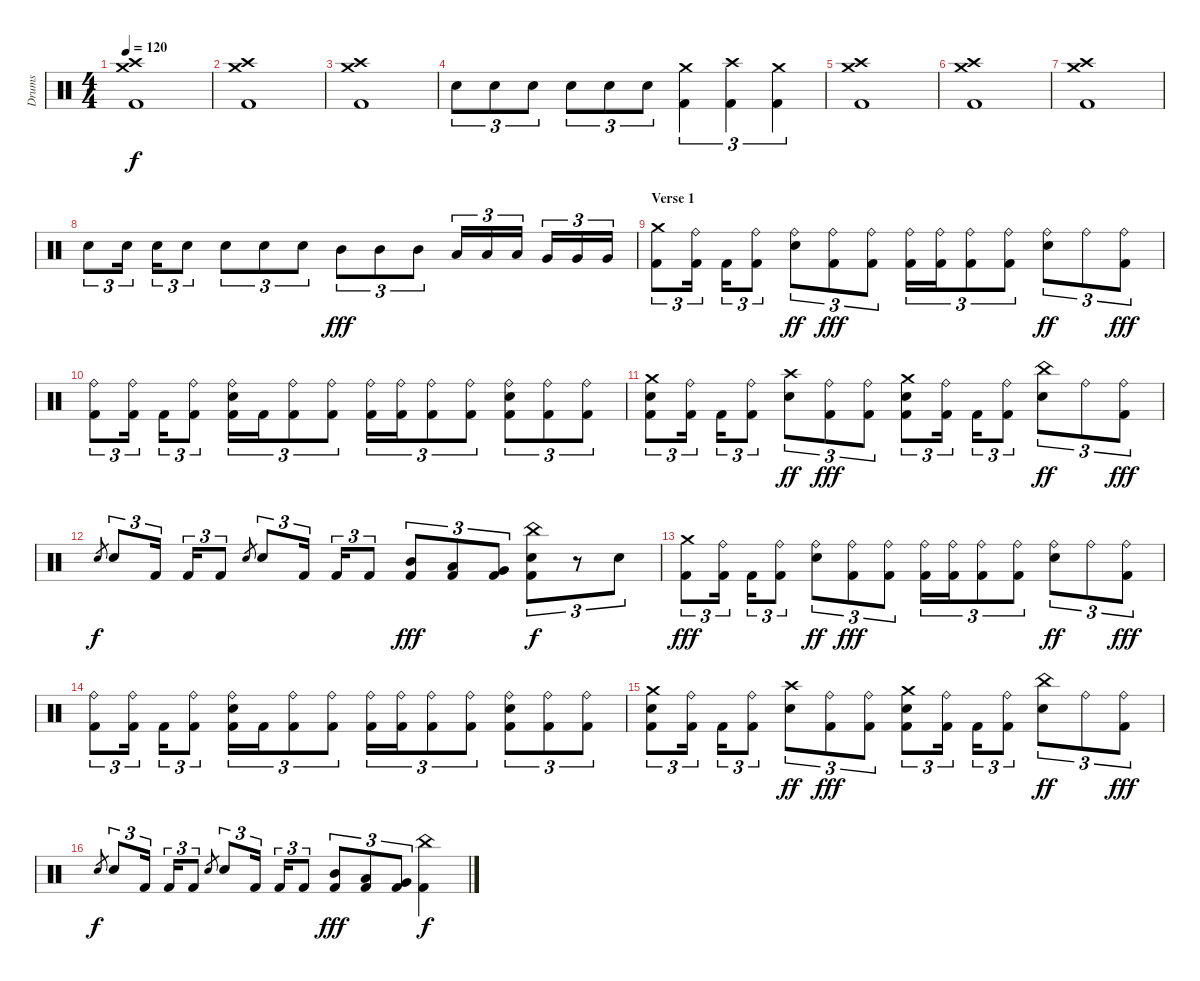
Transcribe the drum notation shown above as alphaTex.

\track ("Drums" "Drums") {instrument percussion}
\staff {score}
\articulation defaults
\ts (4 4)
\tempo 120
\clef neutral
\ks c
("Crash high (hit)" "Crash medium (hit)" "Kick (hit) 2").1{dy f} |
("Crash high (hit)" "Crash medium (hit)" "Kick (hit) 2").1 |
("Crash high (hit)" "Crash medium (hit)" "Kick (hit) 2").1 |
"Snare (hit) 2".8{tu (3 2)} "Snare (hit) 2".8{tu (3 2)} "Snare (hit) 2".8{tu (3 2)} "Snare (hit) 2".8{tu (3 2)} "Snare (hit) 2".8{tu (3 2)} "Snare (hit) 2".8{tu (3 2)} ("Crash medium (hit)" "Kick (hit) 2").4{tu (3 2)} ("Crash high (hit)" "Kick (hit) 2").4{tu (3 2)} ("Crash medium (hit)" "Kick (hit) 2").4{tu (3 2)} |
("Crash high (hit)" "Crash medium (hit)" "Kick (hit) 2").1 |
("Crash high (hit)" "Crash medium (hit)" "Kick (hit) 2").1 |
("Crash high (hit)" "Crash medium (hit)" "Kick (hit) 2").1 |
"Snare (hit) 2".8{tu (3 2)} "Snare (hit) 2".16{tu (3 2)} "Snare (hit) 2".16{tu (3 2)} "Snare (hit) 2".8{tu (3 2)} "Snare (hit) 2".8{tu (3 2)} "Snare (hit) 2".8{tu (3 2)} "Snare (hit) 2".8{tu (3 2)} "Mid Tom (hit)".8{tu (3 2) dy fff} "Mid Tom (hit)".8{tu (3 2)} "Mid Tom (hit)".8{tu (3 2)} "Low Tom (hit)".16{tu (3 2)} "Low Tom (hit)".16{tu (3 2)} "Low Tom (hit)".16{tu (3 2)} "Very Low Tom (hit)".16{tu (3 2)} "Very Low Tom (hit)".16{tu (3 2)} "Very Low Tom (hit)".16{tu (3 2)} |
\section ("" "Verse 1")
("Crash medium (hit)" "Kick (hit) 2").8{tu (3 2)} ("Ride (bell)" "Kick (hit) 2").16{tu (3 2)} "Kick (hit) 2".16{tu (3 2)} ("Ride (bell)" "Kick (hit) 2").8{tu (3 2)} ("Ride (bell)" "Snare (hit) 2").8{tu (3 2) dy ff} ("Ride (bell)" "Kick (hit) 2").8{tu (3 2) dy fff} ("Ride (bell)" "Kick (hit) 2").8{tu (3 2)} ("Ride (bell)" "Kick (hit) 2").16{tu (3 2)} ("Ride (bell)" "Kick (hit) 2").16{tu (3 2)} ("Ride (bell)" "Kick (hit) 2").8{tu (3 2)} ("Ride (bell)" "Kick (hit) 2").8{tu (3 2)} ("Ride (bell)" "Snare (hit) 2").8{tu (3 2) dy ff} "Ride (bell)".8{tu (3 2)} ("Ride (bell)" "Kick (hit) 2").8{tu (3 2) dy fff} |
("Ride (bell)" "Kick (hit) 2").8{tu (3 2)} ("Ride (bell)" "Kick (hit) 2").16{tu (3 2)} "Kick (hit) 2".16{tu (3 2)} ("Ride (bell)" "Kick (hit) 2").8{tu (3 2)} ("Ride (bell)" "Snare (hit) 2" "Kick (hit) 2").16{tu (3 2)} "Kick (hit) 2".16{tu (3 2)} ("Ride (bell)" "Kick (hit) 2").8{tu (3 2)} ("Ride (bell)" "Kick (hit) 2").8{tu (3 2)} ("Ride (bell)" "Kick (hit) 2").16{tu (3 2)} ("Ride (bell)" "Kick (hit) 2").16{tu (3 2)} ("Ride (bell)" "Kick (hit) 2").8{tu (3 2)} ("Ride (bell)" "Kick (hit) 2").8{tu (3 2)} ("Ride (bell)" "Snare (hit) 2" "Kick (hit) 2").8{tu (3 2)} ("Ride (bell)" "Kick (hit) 2").8{tu (3 2)} ("Ride (bell)" "Kick (hit) 2").8{tu (3 2)} |
("Crash medium (hit)" "Snare (hit) 2" "Kick (hit) 2").8{tu (3 2)} ("Ride (bell)" "Kick (hit) 2").16{tu (3 2)} "Kick (hit) 2".16{tu (3 2)} ("Ride (bell)" "Kick (hit) 2").8{tu (3 2)} ("Crash high (hit)" "Snare (hit) 2").8{tu (3 2) dy ff} ("Ride (bell)" "Kick (hit) 2").8{tu (3 2) dy fff} ("Ride (bell)" "Kick (hit) 2").8{tu (3 2)} ("Crash medium (hit)" "Snare (hit) 2" "Kick (hit) 2").8{tu (3 2)} ("Ride (bell)" "Kick (hit) 2").16{tu (3 2)} "Kick (hit) 2".16{tu (3 2)} ("Ride (bell)" "Kick (hit) 2").8{tu (3 2)} ("China (hit)" "Snare (hit) 2").8{tu (3 2) dy ff} "Ride (bell)".8{tu (3 2)} ("Ride (bell)" "Kick (hit) 2").8{tu (3 2) dy fff} |
"Snare (hit) 2".8{gr dy f} "Snare (hit) 2".8{tu (3 2)} "Kick (hit) 2".16{tu (3 2)} "Kick (hit) 2".16{tu (3 2)} "Kick (hit) 2".8{tu (3 2)} "Snare (hit) 2".8{gr} "Snare (hit) 2".8{tu (3 2)} "Kick (hit) 2".16{tu (3 2)} "Kick (hit) 2".16{tu (3 2)} "Kick (hit) 2".8{tu (3 2)} ("Mid Tom (hit)" "Kick (hit) 2").8{tu (3 2) dy fff} ("Low Tom (hit)" "Kick (hit) 2").8{tu (3 2)} ("Very Low Tom (hit)" "Kick (hit) 2").8{tu (3 2)} ("China (hit)" "Snare (hit) 2" "Kick (hit) 2").8{tu (3 2) dy f} r.8{tu (3 2)} "Snare (hit) 2".8{tu (3 2)} |
("Crash medium (hit)" "Kick (hit) 2").8{tu (3 2) dy fff} ("Ride (bell)" "Kick (hit) 2").16{tu (3 2)} "Kick (hit) 2".16{tu (3 2)} ("Ride (bell)" "Kick (hit) 2").8{tu (3 2)} ("Ride (bell)" "Snare (hit) 2").8{tu (3 2) dy ff} ("Ride (bell)" "Kick (hit) 2").8{tu (3 2) dy fff} ("Ride (bell)" "Kick (hit) 2").8{tu (3 2)} ("Ride (bell)" "Kick (hit) 2").16{tu (3 2)} ("Ride (bell)" "Kick (hit) 2").16{tu (3 2)} ("Ride (bell)" "Kick (hit) 2").8{tu (3 2)} ("Ride (bell)" "Kick (hit) 2").8{tu (3 2)} ("Ride (bell)" "Snare (hit) 2").8{tu (3 2) dy ff} "Ride (bell)".8{tu (3 2)} ("Ride (bell)" "Kick (hit) 2").8{tu (3 2) dy fff} |
("Ride (bell)" "Kick (hit) 2").8{tu (3 2)} ("Ride (bell)" "Kick (hit) 2").16{tu (3 2)} "Kick (hit) 2".16{tu (3 2)} ("Ride (bell)" "Kick (hit) 2").8{tu (3 2)} ("Ride (bell)" "Snare (hit) 2" "Kick (hit) 2").16{tu (3 2)} "Kick (hit) 2".16{tu (3 2)} ("Ride (bell)" "Kick (hit) 2").8{tu (3 2)} ("Ride (bell)" "Kick (hit) 2").8{tu (3 2)} ("Ride (bell)" "Kick (hit) 2").16{tu (3 2)} ("Ride (bell)" "Kick (hit) 2").16{tu (3 2)} ("Ride (bell)" "Kick (hit) 2").8{tu (3 2)} ("Ride (bell)" "Kick (hit) 2").8{tu (3 2)} ("Ride (bell)" "Snare (hit) 2" "Kick (hit) 2").8{tu (3 2)} ("Ride (bell)" "Kick (hit) 2").8{tu (3 2)} ("Ride (bell)" "Kick (hit) 2").8{tu (3 2)} |
("Crash medium (hit)" "Snare (hit) 2" "Kick (hit) 2").8{tu (3 2)} ("Ride (bell)" "Kick (hit) 2").16{tu (3 2)} "Kick (hit) 2".16{tu (3 2)} ("Ride (bell)" "Kick (hit) 2").8{tu (3 2)} ("Crash high (hit)" "Snare (hit) 2").8{tu (3 2) dy ff} ("Ride (bell)" "Kick (hit) 2").8{tu (3 2) dy fff} ("Ride (bell)" "Kick (hit) 2").8{tu (3 2)} ("Crash medium (hit)" "Snare (hit) 2" "Kick (hit) 2").8{tu (3 2)} ("Ride (bell)" "Kick (hit) 2").16{tu (3 2)} "Kick (hit) 2".16{tu (3 2)} ("Ride (bell)" "Kick (hit) 2").8{tu (3 2)} ("China (hit)" "Snare (hit) 2").8{tu (3 2) dy ff} "Ride (bell)".8{tu (3 2)} ("Ride (bell)" "Kick (hit) 2").8{tu (3 2) dy fff} |
"Snare (hit) 2".8{gr dy f} "Snare (hit) 2".8{tu (3 2)} "Kick (hit) 2".16{tu (3 2)} "Kick (hit) 2".16{tu (3 2)} "Kick (hit) 2".8{tu (3 2)} "Snare (hit) 2".8{gr} "Snare (hit) 2".8{tu (3 2)} "Kick (hit) 2".16{tu (3 2)} "Kick (hit) 2".16{tu (3 2)} "Kick (hit) 2".8{tu (3 2)} ("Mid Tom (hit)" "Kick (hit) 2").8{tu (3 2) dy fff} ("Low Tom (hit)" "Kick (hit) 2").8{tu (3 2)} ("Very Low Tom (hit)" "Kick (hit) 2").8{tu (3 2)} ("China (hit)" "Kick (hit) 2").4{dy f}
